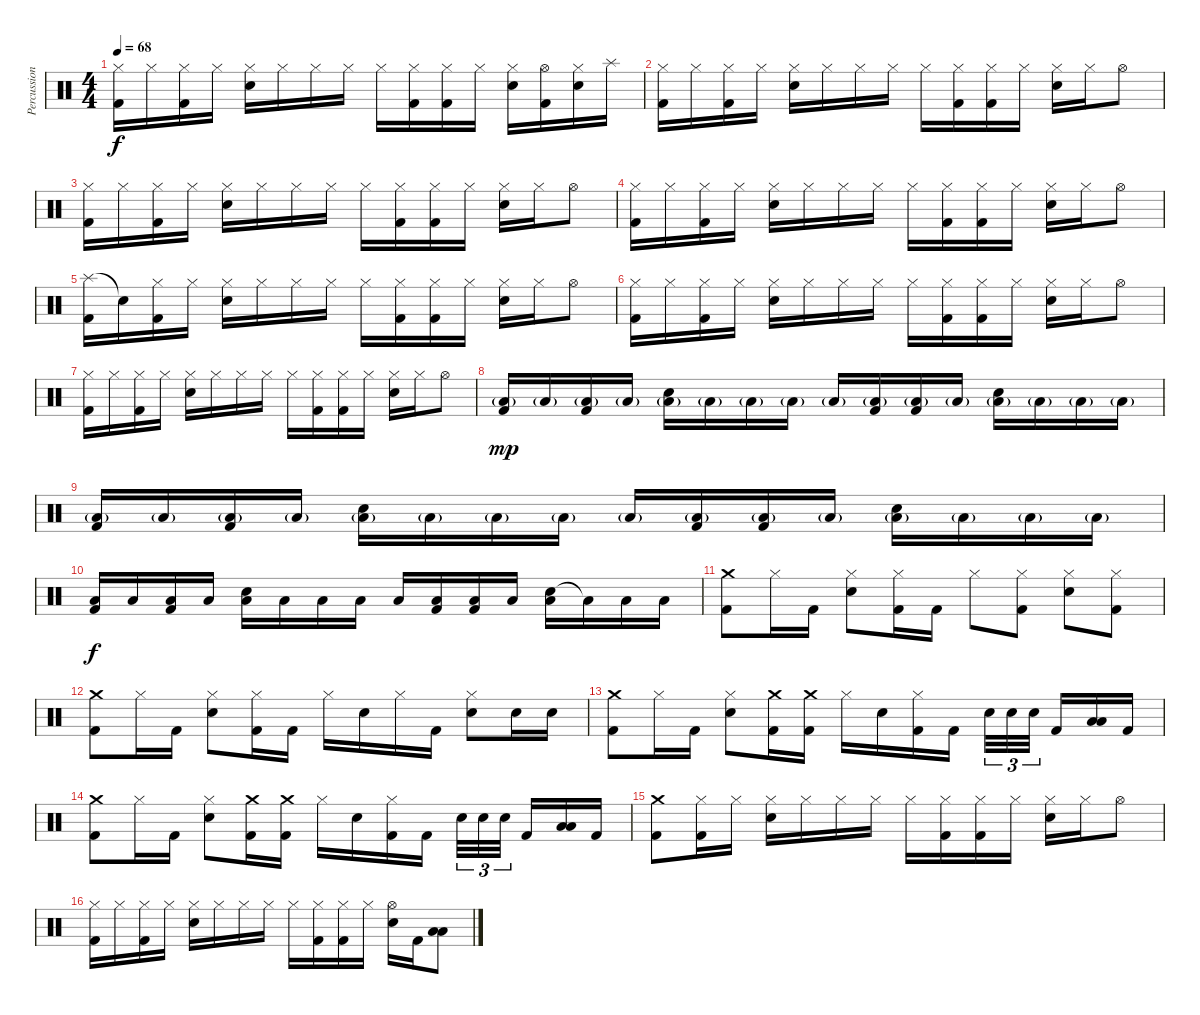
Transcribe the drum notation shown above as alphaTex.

\track ("Percussion" "Percussion") {instrument percussion}
\staff {score}
\articulation defaults
\ts (4 4)
\tempo 68
\clef neutral
\ks c
("Hi-Hat (closed)" "Kick (hit) 2").16{dy f} "Hi-Hat (closed)".16 ("Hi-Hat (closed)" "Kick (hit) 2").16 "Hi-Hat (closed)".16 ("Hi-Hat (closed)" "Electric Snare (hit)").16 "Hi-Hat (closed)".16 "Hi-Hat (closed)".16 "Hi-Hat (closed)".16 "Hi-Hat (closed)".16 ("Hi-Hat (closed)" "Kick (hit) 2").16 ("Hi-Hat (closed)" "Kick (hit) 2").16 "Hi-Hat (closed)".16 ("Hi-Hat (closed)" "Electric Snare (hit)").16 ("Hi-Hat (open)" "Kick (hit) 2").16 ("Hi-Hat (closed)" "Electric Snare (hit)").16 "Splash (hit)".16 |
("Hi-Hat (closed)" "Kick (hit) 2").16 "Hi-Hat (closed)".16 ("Hi-Hat (closed)" "Kick (hit) 2").16 "Hi-Hat (closed)".16 ("Hi-Hat (closed)" "Electric Snare (hit)").16 "Hi-Hat (closed)".16 "Hi-Hat (closed)".16 "Hi-Hat (closed)".16 "Hi-Hat (closed)".16 ("Hi-Hat (closed)" "Kick (hit) 2").16 ("Hi-Hat (closed)" "Kick (hit) 2").16 "Hi-Hat (closed)".16 ("Hi-Hat (closed)" "Electric Snare (hit)").16 "Hi-Hat (closed)".16 "Hi-Hat (open)".8 |
("Hi-Hat (closed)" "Kick (hit) 2").16 "Hi-Hat (closed)".16 ("Hi-Hat (closed)" "Kick (hit) 2").16 "Hi-Hat (closed)".16 ("Hi-Hat (closed)" "Electric Snare (hit)").16 "Hi-Hat (closed)".16 "Hi-Hat (closed)".16 "Hi-Hat (closed)".16 "Hi-Hat (closed)".16 ("Hi-Hat (closed)" "Kick (hit) 2").16 ("Hi-Hat (closed)" "Kick (hit) 2").16 "Hi-Hat (closed)".16 ("Hi-Hat (closed)" "Electric Snare (hit)").16 "Hi-Hat (closed)".16 "Hi-Hat (open)".8 |
("Hi-Hat (closed)" "Kick (hit) 2").16 "Hi-Hat (closed)".16 ("Hi-Hat (closed)" "Kick (hit) 2").16 "Hi-Hat (closed)".16 ("Hi-Hat (closed)" "Electric Snare (hit)").16 "Hi-Hat (closed)".16 "Hi-Hat (closed)".16 "Hi-Hat (closed)".16 "Hi-Hat (closed)".16 ("Hi-Hat (closed)" "Kick (hit) 2").16 ("Hi-Hat (closed)" "Kick (hit) 2").16 "Hi-Hat (closed)".16 ("Hi-Hat (closed)" "Electric Snare (hit)").16 "Hi-Hat (closed)".16 "Hi-Hat (open)".8 |
("Splash (hit)" "Kick (hit) 2").16 "Snare (hit)"{t}.16 ("Hi-Hat (closed)" "Kick (hit) 2").16 "Hi-Hat (closed)".16 ("Hi-Hat (closed)" "Electric Snare (hit)").16 "Hi-Hat (closed)".16 "Hi-Hat (closed)".16 "Hi-Hat (closed)".16 "Hi-Hat (closed)".16 ("Hi-Hat (closed)" "Kick (hit) 2").16 ("Hi-Hat (closed)" "Kick (hit) 2").16 "Hi-Hat (closed)".16 ("Hi-Hat (closed)" "Electric Snare (hit)").16 "Hi-Hat (closed)".16 "Hi-Hat (open)".8 |
("Hi-Hat (closed)" "Kick (hit) 2").16 "Hi-Hat (closed)".16 ("Hi-Hat (closed)" "Kick (hit) 2").16 "Hi-Hat (closed)".16 ("Hi-Hat (closed)" "Electric Snare (hit)").16 "Hi-Hat (closed)".16 "Hi-Hat (closed)".16 "Hi-Hat (closed)".16 "Hi-Hat (closed)".16 ("Hi-Hat (closed)" "Kick (hit) 2").16 ("Hi-Hat (closed)" "Kick (hit) 2").16 "Hi-Hat (closed)".16 ("Hi-Hat (closed)" "Electric Snare (hit)").16 "Hi-Hat (closed)".16 "Hi-Hat (open)".8 |
("Hi-Hat (closed)" "Kick (hit) 2").16 "Hi-Hat (closed)".16 ("Hi-Hat (closed)" "Kick (hit) 2").16 "Hi-Hat (closed)".16 ("Hi-Hat (closed)" "Electric Snare (hit)").16 "Hi-Hat (closed)".16 "Hi-Hat (closed)".16 "Hi-Hat (closed)".16 "Hi-Hat (closed)".16 ("Hi-Hat (closed)" "Kick (hit) 2").16 ("Hi-Hat (closed)" "Kick (hit) 2").16 "Hi-Hat (closed)".16 ("Hi-Hat (closed)" "Electric Snare (hit)").16 "Hi-Hat (closed)".16 "Hi-Hat (open)".8 |
("Low Floor Tom (hit)"{g} "Kick (hit) 2").16{dy mp} "Low Floor Tom (hit)"{g}.16 ("Low Floor Tom (hit)"{g} "Kick (hit) 2").16 "Low Floor Tom (hit)"{g}.16 ("Electric Snare (hit)" "Low Floor Tom (hit)"{g}).16 "Low Floor Tom (hit)"{g}.16 "Low Floor Tom (hit)"{g}.16 "Low Floor Tom (hit)"{g}.16 "Low Floor Tom (hit)"{g}.16 ("Low Floor Tom (hit)"{g} "Kick (hit) 2").16 ("Low Floor Tom (hit)"{g} "Kick (hit) 2").16 "Low Floor Tom (hit)"{g}.16 ("Electric Snare (hit)" "Low Floor Tom (hit)"{g}).16 "Low Floor Tom (hit)"{g}.16 "Low Floor Tom (hit)"{g}.16 "Low Floor Tom (hit)"{g}.16 |
("Low Floor Tom (hit)"{g} "Kick (hit) 2").16 "Low Floor Tom (hit)"{g}.16 ("Low Floor Tom (hit)"{g} "Kick (hit) 2").16 "Low Floor Tom (hit)"{g}.16 ("Electric Snare (hit)" "Low Floor Tom (hit)"{g}).16 "Low Floor Tom (hit)"{g}.16 "Low Floor Tom (hit)"{g}.16 "Low Floor Tom (hit)"{g}.16 "Low Floor Tom (hit)"{g}.16 ("Low Floor Tom (hit)"{g} "Kick (hit) 2").16 ("Low Floor Tom (hit)"{g} "Kick (hit) 2").16 "Low Floor Tom (hit)"{g}.16 ("Electric Snare (hit)" "Low Floor Tom (hit)"{g}).16 "Low Floor Tom (hit)"{g}.16 "Low Floor Tom (hit)"{g}.16 "Low Floor Tom (hit)"{g}.16 |
("Low Floor Tom (hit)" "Kick (hit) 2").16{dy f} "Low Floor Tom (hit)".16 ("Low Floor Tom (hit)" "Kick (hit) 2").16 "Low Floor Tom (hit)".16 ("Electric Snare (hit)" "Low Floor Tom (hit)").16 "Low Floor Tom (hit)".16 "Low Floor Tom (hit)".16 "Low Floor Tom (hit)".16 "Low Floor Tom (hit)".16 ("Low Floor Tom (hit)" "Kick (hit) 2").16 ("Low Floor Tom (hit)" "Kick (hit) 2").16 "Low Floor Tom (hit)".16 ("Electric Snare (hit)" "Low Floor Tom (hit)").16 "Low Floor Tom (hit)"{t}.16 "Low Floor Tom (hit)".16 "Low Floor Tom (hit)".16 |
("Crash medium (hit)" "Kick (hit) 2").8 "Hi-Hat (closed)".16 "Kick (hit) 2".16 ("Hi-Hat (closed)" "Electric Snare (hit)").8 ("Hi-Hat (closed)" "Kick (hit) 2").16 "Kick (hit) 2".16 "Hi-Hat (closed)".8 ("Hi-Hat (closed)" "Kick (hit) 2").8 ("Hi-Hat (closed)" "Electric Snare (hit)").8 ("Hi-Hat (closed)" "Kick (hit) 2").8 |
("Crash medium (hit)" "Kick (hit) 2").8 "Hi-Hat (closed)".16 "Kick (hit) 2".16 ("Hi-Hat (closed)" "Electric Snare (hit)").8 ("Hi-Hat (closed)" "Kick (hit) 2").16 "Kick (hit) 2".16 "Hi-Hat (closed)".16 "Electric Snare (hit)".16 "Hi-Hat (closed)".16 "Kick (hit) 2".16 ("Hi-Hat (closed)" "Electric Snare (hit)").8 "Electric Snare (hit)".16 "Electric Snare (hit)".16 |
("Crash medium (hit)" "Kick (hit) 2").8 "Hi-Hat (closed)".16 "Kick (hit) 2".16 ("Hi-Hat (closed)" "Electric Snare (hit)").8 ("Crash medium (hit)" "Kick (hit) 2").16 ("Crash medium (hit)" "Kick (hit) 2").16 "Hi-Hat (closed)".16 "Electric Snare (hit)".16 ("Hi-Hat (closed)" "Kick (hit) 2").16 "Kick (hit) 2".16 "Electric Snare (hit)".32{tu (3 2)} "Electric Snare (hit)".32{tu (3 2)} "Electric Snare (hit)".32{tu (3 2)} "Kick (hit) 2".16 ("Low Tom (hit)" "Low Floor Tom (hit)").16 "Kick (hit) 2".16 |
("Crash medium (hit)" "Kick (hit) 2").8 "Hi-Hat (closed)".16 "Kick (hit) 2".16 ("Hi-Hat (closed)" "Electric Snare (hit)").8 ("Crash medium (hit)" "Kick (hit) 2").16 ("Crash medium (hit)" "Kick (hit) 2").16 "Hi-Hat (closed)".16 "Electric Snare (hit)".16 ("Hi-Hat (closed)" "Kick (hit) 2").16 "Kick (hit) 2".16 "Electric Snare (hit)".32{tu (3 2)} "Electric Snare (hit)".32{tu (3 2)} "Electric Snare (hit)".32{tu (3 2)} "Kick (hit) 2".16 ("Low Tom (hit)" "Low Floor Tom (hit)").16 "Kick (hit) 2".16 |
("Crash medium (hit)" "Kick (hit) 2").8 ("Hi-Hat (closed)" "Kick (hit) 2").16 "Hi-Hat (closed)".16 ("Hi-Hat (closed)" "Electric Snare (hit)").16 "Hi-Hat (closed)".16 "Hi-Hat (closed)".16 "Hi-Hat (closed)".16 "Hi-Hat (closed)".16 ("Hi-Hat (closed)" "Kick (hit) 2").16 ("Hi-Hat (closed)" "Kick (hit) 2").16 "Hi-Hat (closed)".16 ("Hi-Hat (closed)" "Electric Snare (hit)").16 "Hi-Hat (closed)".16 "Hi-Hat (open)".8 |
("Hi-Hat (closed)" "Kick (hit) 2").16 "Hi-Hat (closed)".16 ("Hi-Hat (closed)" "Kick (hit) 2").16 "Hi-Hat (closed)".16 ("Hi-Hat (closed)" "Electric Snare (hit)").16 "Hi-Hat (closed)".16 "Hi-Hat (closed)".16 "Hi-Hat (closed)".16 "Hi-Hat (closed)".16 ("Hi-Hat (closed)" "Kick (hit) 2").16 ("Hi-Hat (closed)" "Kick (hit) 2").16 "Hi-Hat (closed)".16 ("Hi-Hat (open)" "Electric Snare (hit)").16 "Kick (hit) 2".16 ("Low Tom (hit)" "Low Floor Tom (hit)").8
